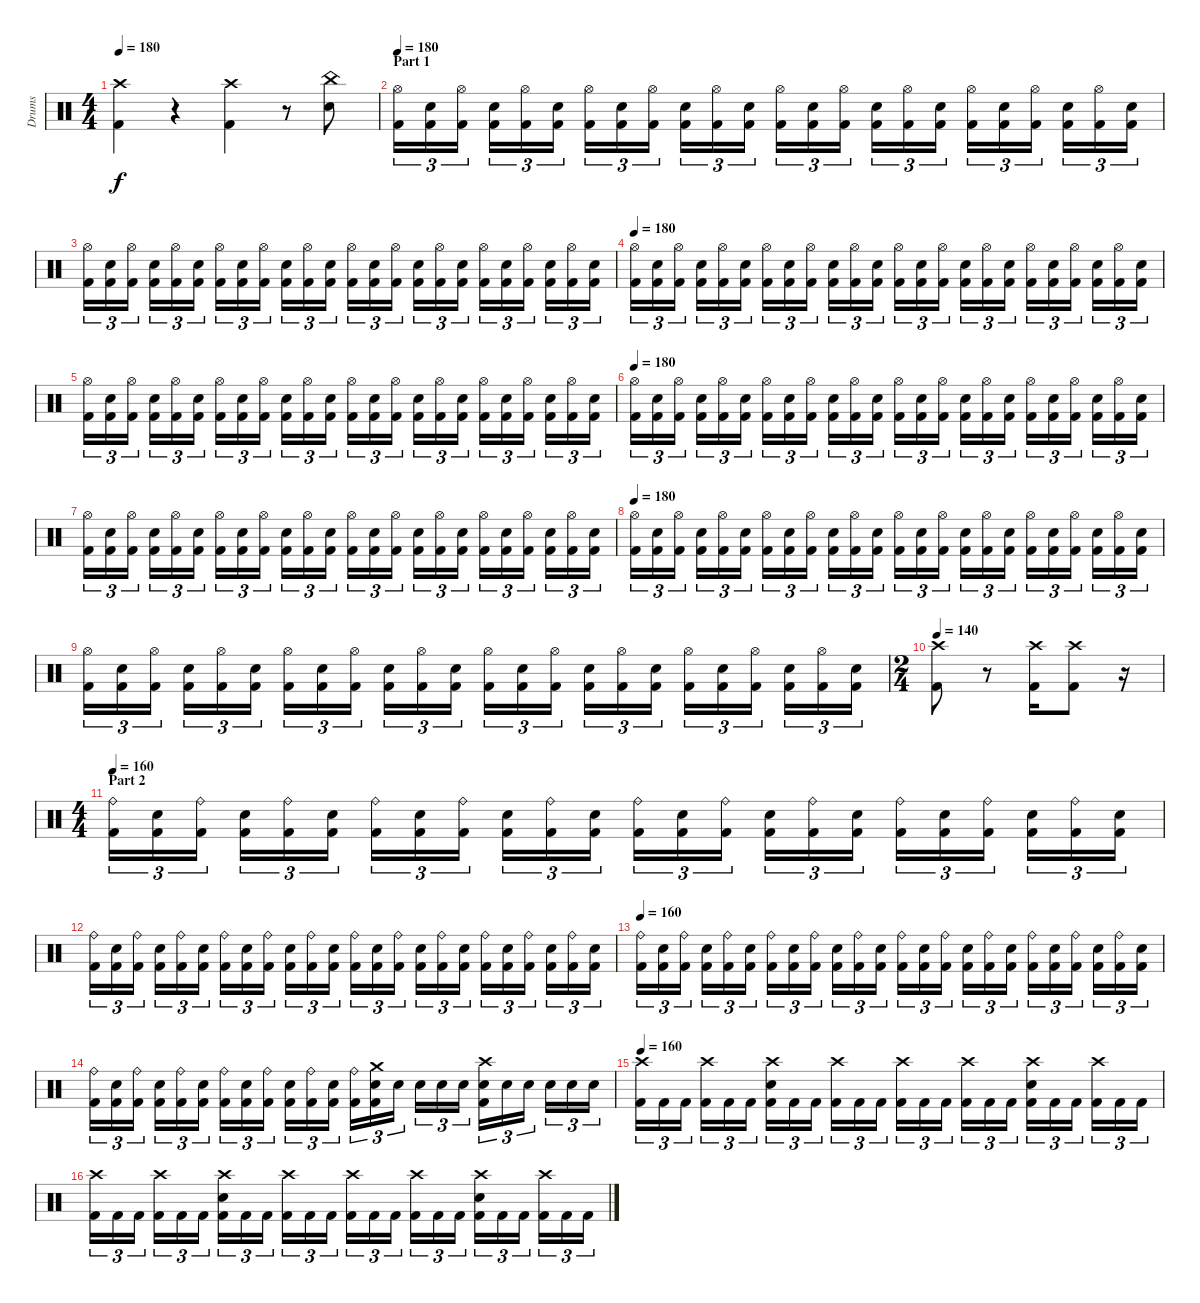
\track ("Drums" "Drums") {instrument percussion}
\staff {score}
\articulation defaults
\ts (4 4)
\tempo 180
\clef neutral
\ks c
("Crash high (hit)" "Kick (hit) 2").4{dy f} r.4 ("Crash high (hit)" "Kick (hit) 2").4 r.8 ("China (hit)" "Electric Snare (hit)").8 |
\section ("" "Part 1")
\tempo 180
("Hi-Hat (open)" "Kick (hit) 2").16{tu (3 2)} ("Electric Snare (hit)" "Kick (hit) 2").16{tu (3 2)} ("Hi-Hat (open)" "Kick (hit) 2").16{tu (3 2)} ("Electric Snare (hit)" "Kick (hit) 2").16{tu (3 2)} ("Hi-Hat (open)" "Kick (hit) 2").16{tu (3 2)} ("Electric Snare (hit)" "Kick (hit) 2").16{tu (3 2)} ("Hi-Hat (open)" "Kick (hit) 2").16{tu (3 2)} ("Electric Snare (hit)" "Kick (hit) 2").16{tu (3 2)} ("Hi-Hat (open)" "Kick (hit) 2").16{tu (3 2)} ("Electric Snare (hit)" "Kick (hit) 2").16{tu (3 2)} ("Hi-Hat (open)" "Kick (hit) 2").16{tu (3 2)} ("Electric Snare (hit)" "Kick (hit) 2").16{tu (3 2)} ("Hi-Hat (open)" "Kick (hit) 2").16{tu (3 2)} ("Electric Snare (hit)" "Kick (hit) 2").16{tu (3 2)} ("Hi-Hat (open)" "Kick (hit) 2").16{tu (3 2)} ("Electric Snare (hit)" "Kick (hit) 2").16{tu (3 2)} ("Hi-Hat (open)" "Kick (hit) 2").16{tu (3 2)} ("Electric Snare (hit)" "Kick (hit) 2").16{tu (3 2)} ("Hi-Hat (open)" "Kick (hit) 2").16{tu (3 2)} ("Electric Snare (hit)" "Kick (hit) 2").16{tu (3 2)} ("Hi-Hat (open)" "Kick (hit) 2").16{tu (3 2)} ("Electric Snare (hit)" "Kick (hit) 2").16{tu (3 2)} ("Hi-Hat (open)" "Kick (hit) 2").16{tu (3 2)} ("Electric Snare (hit)" "Kick (hit) 2").16{tu (3 2)} |
("Hi-Hat (open)" "Kick (hit) 2").16{tu (3 2)} ("Electric Snare (hit)" "Kick (hit) 2").16{tu (3 2)} ("Hi-Hat (open)" "Kick (hit) 2").16{tu (3 2)} ("Electric Snare (hit)" "Kick (hit) 2").16{tu (3 2)} ("Hi-Hat (open)" "Kick (hit) 2").16{tu (3 2)} ("Electric Snare (hit)" "Kick (hit) 2").16{tu (3 2)} ("Hi-Hat (open)" "Kick (hit) 2").16{tu (3 2)} ("Electric Snare (hit)" "Kick (hit) 2").16{tu (3 2)} ("Hi-Hat (open)" "Kick (hit) 2").16{tu (3 2)} ("Electric Snare (hit)" "Kick (hit) 2").16{tu (3 2)} ("Hi-Hat (open)" "Kick (hit) 2").16{tu (3 2)} ("Electric Snare (hit)" "Kick (hit) 2").16{tu (3 2)} ("Hi-Hat (open)" "Kick (hit) 2").16{tu (3 2)} ("Electric Snare (hit)" "Kick (hit) 2").16{tu (3 2)} ("Hi-Hat (open)" "Kick (hit) 2").16{tu (3 2)} ("Electric Snare (hit)" "Kick (hit) 2").16{tu (3 2)} ("Hi-Hat (open)" "Kick (hit) 2").16{tu (3 2)} ("Electric Snare (hit)" "Kick (hit) 2").16{tu (3 2)} ("Hi-Hat (open)" "Kick (hit) 2").16{tu (3 2)} ("Electric Snare (hit)" "Kick (hit) 2").16{tu (3 2)} ("Hi-Hat (open)" "Kick (hit) 2").16{tu (3 2)} ("Electric Snare (hit)" "Kick (hit) 2").16{tu (3 2)} ("Hi-Hat (open)" "Kick (hit) 2").16{tu (3 2)} ("Electric Snare (hit)" "Kick (hit) 2").16{tu (3 2)} |
\tempo 180
("Hi-Hat (open)" "Kick (hit) 2").16{tu (3 2)} ("Electric Snare (hit)" "Kick (hit) 2").16{tu (3 2)} ("Hi-Hat (open)" "Kick (hit) 2").16{tu (3 2)} ("Electric Snare (hit)" "Kick (hit) 2").16{tu (3 2)} ("Hi-Hat (open)" "Kick (hit) 2").16{tu (3 2)} ("Electric Snare (hit)" "Kick (hit) 2").16{tu (3 2)} ("Hi-Hat (open)" "Kick (hit) 2").16{tu (3 2)} ("Electric Snare (hit)" "Kick (hit) 2").16{tu (3 2)} ("Hi-Hat (open)" "Kick (hit) 2").16{tu (3 2)} ("Electric Snare (hit)" "Kick (hit) 2").16{tu (3 2)} ("Hi-Hat (open)" "Kick (hit) 2").16{tu (3 2)} ("Electric Snare (hit)" "Kick (hit) 2").16{tu (3 2)} ("Hi-Hat (open)" "Kick (hit) 2").16{tu (3 2)} ("Electric Snare (hit)" "Kick (hit) 2").16{tu (3 2)} ("Hi-Hat (open)" "Kick (hit) 2").16{tu (3 2)} ("Electric Snare (hit)" "Kick (hit) 2").16{tu (3 2)} ("Hi-Hat (open)" "Kick (hit) 2").16{tu (3 2)} ("Electric Snare (hit)" "Kick (hit) 2").16{tu (3 2)} ("Hi-Hat (open)" "Kick (hit) 2").16{tu (3 2)} ("Electric Snare (hit)" "Kick (hit) 2").16{tu (3 2)} ("Hi-Hat (open)" "Kick (hit) 2").16{tu (3 2)} ("Electric Snare (hit)" "Kick (hit) 2").16{tu (3 2)} ("Hi-Hat (open)" "Kick (hit) 2").16{tu (3 2)} ("Electric Snare (hit)" "Kick (hit) 2").16{tu (3 2)} |
("Hi-Hat (open)" "Kick (hit) 2").16{tu (3 2)} ("Electric Snare (hit)" "Kick (hit) 2").16{tu (3 2)} ("Hi-Hat (open)" "Kick (hit) 2").16{tu (3 2)} ("Electric Snare (hit)" "Kick (hit) 2").16{tu (3 2)} ("Hi-Hat (open)" "Kick (hit) 2").16{tu (3 2)} ("Electric Snare (hit)" "Kick (hit) 2").16{tu (3 2)} ("Hi-Hat (open)" "Kick (hit) 2").16{tu (3 2)} ("Electric Snare (hit)" "Kick (hit) 2").16{tu (3 2)} ("Hi-Hat (open)" "Kick (hit) 2").16{tu (3 2)} ("Electric Snare (hit)" "Kick (hit) 2").16{tu (3 2)} ("Hi-Hat (open)" "Kick (hit) 2").16{tu (3 2)} ("Electric Snare (hit)" "Kick (hit) 2").16{tu (3 2)} ("Hi-Hat (open)" "Kick (hit) 2").16{tu (3 2)} ("Electric Snare (hit)" "Kick (hit) 2").16{tu (3 2)} ("Hi-Hat (open)" "Kick (hit) 2").16{tu (3 2)} ("Electric Snare (hit)" "Kick (hit) 2").16{tu (3 2)} ("Hi-Hat (open)" "Kick (hit) 2").16{tu (3 2)} ("Electric Snare (hit)" "Kick (hit) 2").16{tu (3 2)} ("Hi-Hat (open)" "Kick (hit) 2").16{tu (3 2)} ("Electric Snare (hit)" "Kick (hit) 2").16{tu (3 2)} ("Hi-Hat (open)" "Kick (hit) 2").16{tu (3 2)} ("Electric Snare (hit)" "Kick (hit) 2").16{tu (3 2)} ("Hi-Hat (open)" "Kick (hit) 2").16{tu (3 2)} ("Electric Snare (hit)" "Kick (hit) 2").16{tu (3 2)} |
\tempo 180
("Hi-Hat (open)" "Kick (hit) 2").16{tu (3 2)} ("Electric Snare (hit)" "Kick (hit) 2").16{tu (3 2)} ("Hi-Hat (open)" "Kick (hit) 2").16{tu (3 2)} ("Electric Snare (hit)" "Kick (hit) 2").16{tu (3 2)} ("Hi-Hat (open)" "Kick (hit) 2").16{tu (3 2)} ("Electric Snare (hit)" "Kick (hit) 2").16{tu (3 2)} ("Hi-Hat (open)" "Kick (hit) 2").16{tu (3 2)} ("Electric Snare (hit)" "Kick (hit) 2").16{tu (3 2)} ("Hi-Hat (open)" "Kick (hit) 2").16{tu (3 2)} ("Electric Snare (hit)" "Kick (hit) 2").16{tu (3 2)} ("Hi-Hat (open)" "Kick (hit) 2").16{tu (3 2)} ("Electric Snare (hit)" "Kick (hit) 2").16{tu (3 2)} ("Hi-Hat (open)" "Kick (hit) 2").16{tu (3 2)} ("Electric Snare (hit)" "Kick (hit) 2").16{tu (3 2)} ("Hi-Hat (open)" "Kick (hit) 2").16{tu (3 2)} ("Electric Snare (hit)" "Kick (hit) 2").16{tu (3 2)} ("Hi-Hat (open)" "Kick (hit) 2").16{tu (3 2)} ("Electric Snare (hit)" "Kick (hit) 2").16{tu (3 2)} ("Hi-Hat (open)" "Kick (hit) 2").16{tu (3 2)} ("Electric Snare (hit)" "Kick (hit) 2").16{tu (3 2)} ("Hi-Hat (open)" "Kick (hit) 2").16{tu (3 2)} ("Electric Snare (hit)" "Kick (hit) 2").16{tu (3 2)} ("Hi-Hat (open)" "Kick (hit) 2").16{tu (3 2)} ("Electric Snare (hit)" "Kick (hit) 2").16{tu (3 2)} |
("Hi-Hat (open)" "Kick (hit) 2").16{tu (3 2)} ("Electric Snare (hit)" "Kick (hit) 2").16{tu (3 2)} ("Hi-Hat (open)" "Kick (hit) 2").16{tu (3 2)} ("Electric Snare (hit)" "Kick (hit) 2").16{tu (3 2)} ("Hi-Hat (open)" "Kick (hit) 2").16{tu (3 2)} ("Electric Snare (hit)" "Kick (hit) 2").16{tu (3 2)} ("Hi-Hat (open)" "Kick (hit) 2").16{tu (3 2)} ("Electric Snare (hit)" "Kick (hit) 2").16{tu (3 2)} ("Hi-Hat (open)" "Kick (hit) 2").16{tu (3 2)} ("Electric Snare (hit)" "Kick (hit) 2").16{tu (3 2)} ("Hi-Hat (open)" "Kick (hit) 2").16{tu (3 2)} ("Electric Snare (hit)" "Kick (hit) 2").16{tu (3 2)} ("Hi-Hat (open)" "Kick (hit) 2").16{tu (3 2)} ("Electric Snare (hit)" "Kick (hit) 2").16{tu (3 2)} ("Hi-Hat (open)" "Kick (hit) 2").16{tu (3 2)} ("Electric Snare (hit)" "Kick (hit) 2").16{tu (3 2)} ("Hi-Hat (open)" "Kick (hit) 2").16{tu (3 2)} ("Electric Snare (hit)" "Kick (hit) 2").16{tu (3 2)} ("Hi-Hat (open)" "Kick (hit) 2").16{tu (3 2)} ("Electric Snare (hit)" "Kick (hit) 2").16{tu (3 2)} ("Hi-Hat (open)" "Kick (hit) 2").16{tu (3 2)} ("Electric Snare (hit)" "Kick (hit) 2").16{tu (3 2)} ("Hi-Hat (open)" "Kick (hit) 2").16{tu (3 2)} ("Electric Snare (hit)" "Kick (hit) 2").16{tu (3 2)} |
\tempo 180
("Hi-Hat (open)" "Kick (hit) 2").16{tu (3 2)} ("Electric Snare (hit)" "Kick (hit) 2").16{tu (3 2)} ("Hi-Hat (open)" "Kick (hit) 2").16{tu (3 2)} ("Electric Snare (hit)" "Kick (hit) 2").16{tu (3 2)} ("Hi-Hat (open)" "Kick (hit) 2").16{tu (3 2)} ("Electric Snare (hit)" "Kick (hit) 2").16{tu (3 2)} ("Hi-Hat (open)" "Kick (hit) 2").16{tu (3 2)} ("Electric Snare (hit)" "Kick (hit) 2").16{tu (3 2)} ("Hi-Hat (open)" "Kick (hit) 2").16{tu (3 2)} ("Electric Snare (hit)" "Kick (hit) 2").16{tu (3 2)} ("Hi-Hat (open)" "Kick (hit) 2").16{tu (3 2)} ("Electric Snare (hit)" "Kick (hit) 2").16{tu (3 2)} ("Hi-Hat (open)" "Kick (hit) 2").16{tu (3 2)} ("Electric Snare (hit)" "Kick (hit) 2").16{tu (3 2)} ("Hi-Hat (open)" "Kick (hit) 2").16{tu (3 2)} ("Electric Snare (hit)" "Kick (hit) 2").16{tu (3 2)} ("Hi-Hat (open)" "Kick (hit) 2").16{tu (3 2)} ("Electric Snare (hit)" "Kick (hit) 2").16{tu (3 2)} ("Hi-Hat (open)" "Kick (hit) 2").16{tu (3 2)} ("Electric Snare (hit)" "Kick (hit) 2").16{tu (3 2)} ("Hi-Hat (open)" "Kick (hit) 2").16{tu (3 2)} ("Electric Snare (hit)" "Kick (hit) 2").16{tu (3 2)} ("Hi-Hat (open)" "Kick (hit) 2").16{tu (3 2)} ("Electric Snare (hit)" "Kick (hit) 2").16{tu (3 2)} |
("Hi-Hat (open)" "Kick (hit) 2").16{tu (3 2)} ("Electric Snare (hit)" "Kick (hit) 2").16{tu (3 2)} ("Hi-Hat (open)" "Kick (hit) 2").16{tu (3 2)} ("Electric Snare (hit)" "Kick (hit) 2").16{tu (3 2)} ("Hi-Hat (open)" "Kick (hit) 2").16{tu (3 2)} ("Electric Snare (hit)" "Kick (hit) 2").16{tu (3 2)} ("Hi-Hat (open)" "Kick (hit) 2").16{tu (3 2)} ("Electric Snare (hit)" "Kick (hit) 2").16{tu (3 2)} ("Hi-Hat (open)" "Kick (hit) 2").16{tu (3 2)} ("Electric Snare (hit)" "Kick (hit) 2").16{tu (3 2)} ("Hi-Hat (open)" "Kick (hit) 2").16{tu (3 2)} ("Electric Snare (hit)" "Kick (hit) 2").16{tu (3 2)} ("Hi-Hat (open)" "Kick (hit) 2").16{tu (3 2)} ("Electric Snare (hit)" "Kick (hit) 2").16{tu (3 2)} ("Hi-Hat (open)" "Kick (hit) 2").16{tu (3 2)} ("Electric Snare (hit)" "Kick (hit) 2").16{tu (3 2)} ("Hi-Hat (open)" "Kick (hit) 2").16{tu (3 2)} ("Electric Snare (hit)" "Kick (hit) 2").16{tu (3 2)} ("Hi-Hat (open)" "Kick (hit) 2").16{tu (3 2)} ("Electric Snare (hit)" "Kick (hit) 2").16{tu (3 2)} ("Hi-Hat (open)" "Kick (hit) 2").16{tu (3 2)} ("Electric Snare (hit)" "Kick (hit) 2").16{tu (3 2)} ("Hi-Hat (open)" "Kick (hit) 2").16{tu (3 2)} ("Electric Snare (hit)" "Kick (hit) 2").16{tu (3 2)} |
\ts (2 4)
\tempo 140
("Crash high (hit)" "Kick (hit) 2").8 r.8 ("Crash high (hit)" "Kick (hit) 2").16 ("Crash high (hit)" "Kick (hit) 2").8 r.16 |
\ts (4 4)
\section ("" "Part 2")
\tempo 160
("Ride (bell)" "Kick (hit) 2").16{tu (3 2)} ("Electric Snare (hit)" "Kick (hit) 2").16{tu (3 2)} ("Ride (bell)" "Kick (hit) 2").16{tu (3 2)} ("Electric Snare (hit)" "Kick (hit) 2").16{tu (3 2)} ("Ride (bell)" "Kick (hit) 2").16{tu (3 2)} ("Electric Snare (hit)" "Kick (hit) 2").16{tu (3 2)} ("Ride (bell)" "Kick (hit) 2").16{tu (3 2)} ("Electric Snare (hit)" "Kick (hit) 2").16{tu (3 2)} ("Ride (bell)" "Kick (hit) 2").16{tu (3 2)} ("Electric Snare (hit)" "Kick (hit) 2").16{tu (3 2)} ("Ride (bell)" "Kick (hit) 2").16{tu (3 2)} ("Electric Snare (hit)" "Kick (hit) 2").16{tu (3 2)} ("Ride (bell)" "Kick (hit) 2").16{tu (3 2)} ("Electric Snare (hit)" "Kick (hit) 2").16{tu (3 2)} ("Ride (bell)" "Kick (hit) 2").16{tu (3 2)} ("Electric Snare (hit)" "Kick (hit) 2").16{tu (3 2)} ("Ride (bell)" "Kick (hit) 2").16{tu (3 2)} ("Electric Snare (hit)" "Kick (hit) 2").16{tu (3 2)} ("Ride (bell)" "Kick (hit) 2").16{tu (3 2)} ("Electric Snare (hit)" "Kick (hit) 2").16{tu (3 2)} ("Ride (bell)" "Kick (hit) 2").16{tu (3 2)} ("Electric Snare (hit)" "Kick (hit) 2").16{tu (3 2)} ("Ride (bell)" "Kick (hit) 2").16{tu (3 2)} ("Electric Snare (hit)" "Kick (hit) 2").16{tu (3 2)} |
("Ride (bell)" "Kick (hit) 2").16{tu (3 2)} ("Electric Snare (hit)" "Kick (hit) 2").16{tu (3 2)} ("Ride (bell)" "Kick (hit) 2").16{tu (3 2)} ("Electric Snare (hit)" "Kick (hit) 2").16{tu (3 2)} ("Ride (bell)" "Kick (hit) 2").16{tu (3 2)} ("Electric Snare (hit)" "Kick (hit) 2").16{tu (3 2)} ("Ride (bell)" "Kick (hit) 2").16{tu (3 2)} ("Electric Snare (hit)" "Kick (hit) 2").16{tu (3 2)} ("Ride (bell)" "Kick (hit) 2").16{tu (3 2)} ("Electric Snare (hit)" "Kick (hit) 2").16{tu (3 2)} ("Ride (bell)" "Kick (hit) 2").16{tu (3 2)} ("Electric Snare (hit)" "Kick (hit) 2").16{tu (3 2)} ("Ride (bell)" "Kick (hit) 2").16{tu (3 2)} ("Electric Snare (hit)" "Kick (hit) 2").16{tu (3 2)} ("Ride (bell)" "Kick (hit) 2").16{tu (3 2)} ("Electric Snare (hit)" "Kick (hit) 2").16{tu (3 2)} ("Ride (bell)" "Kick (hit) 2").16{tu (3 2)} ("Electric Snare (hit)" "Kick (hit) 2").16{tu (3 2)} ("Ride (bell)" "Kick (hit) 2").16{tu (3 2)} ("Electric Snare (hit)" "Kick (hit) 2").16{tu (3 2)} ("Ride (bell)" "Kick (hit) 2").16{tu (3 2)} ("Electric Snare (hit)" "Kick (hit) 2").16{tu (3 2)} ("Ride (bell)" "Kick (hit) 2").16{tu (3 2)} ("Electric Snare (hit)" "Kick (hit) 2").16{tu (3 2)} |
\tempo 160
("Ride (bell)" "Kick (hit) 2").16{tu (3 2)} ("Electric Snare (hit)" "Kick (hit) 2").16{tu (3 2)} ("Ride (bell)" "Kick (hit) 2").16{tu (3 2)} ("Electric Snare (hit)" "Kick (hit) 2").16{tu (3 2)} ("Ride (bell)" "Kick (hit) 2").16{tu (3 2)} ("Electric Snare (hit)" "Kick (hit) 2").16{tu (3 2)} ("Ride (bell)" "Kick (hit) 2").16{tu (3 2)} ("Electric Snare (hit)" "Kick (hit) 2").16{tu (3 2)} ("Ride (bell)" "Kick (hit) 2").16{tu (3 2)} ("Electric Snare (hit)" "Kick (hit) 2").16{tu (3 2)} ("Ride (bell)" "Kick (hit) 2").16{tu (3 2)} ("Electric Snare (hit)" "Kick (hit) 2").16{tu (3 2)} ("Ride (bell)" "Kick (hit) 2").16{tu (3 2)} ("Electric Snare (hit)" "Kick (hit) 2").16{tu (3 2)} ("Ride (bell)" "Kick (hit) 2").16{tu (3 2)} ("Electric Snare (hit)" "Kick (hit) 2").16{tu (3 2)} ("Ride (bell)" "Kick (hit) 2").16{tu (3 2)} ("Electric Snare (hit)" "Kick (hit) 2").16{tu (3 2)} ("Ride (bell)" "Kick (hit) 2").16{tu (3 2)} ("Electric Snare (hit)" "Kick (hit) 2").16{tu (3 2)} ("Ride (bell)" "Kick (hit) 2").16{tu (3 2)} ("Electric Snare (hit)" "Kick (hit) 2").16{tu (3 2)} ("Ride (bell)" "Kick (hit) 2").16{tu (3 2)} ("Electric Snare (hit)" "Kick (hit) 2").16{tu (3 2)} |
("Ride (bell)" "Kick (hit) 2").16{tu (3 2)} ("Electric Snare (hit)" "Kick (hit) 2").16{tu (3 2)} ("Ride (bell)" "Kick (hit) 2").16{tu (3 2)} ("Electric Snare (hit)" "Kick (hit) 2").16{tu (3 2)} ("Ride (bell)" "Kick (hit) 2").16{tu (3 2)} ("Electric Snare (hit)" "Kick (hit) 2").16{tu (3 2)} ("Ride (bell)" "Kick (hit) 2").16{tu (3 2)} ("Electric Snare (hit)" "Kick (hit) 2").16{tu (3 2)} ("Ride (bell)" "Kick (hit) 2").16{tu (3 2)} ("Electric Snare (hit)" "Kick (hit) 2").16{tu (3 2)} ("Ride (bell)" "Kick (hit) 2").16{tu (3 2)} ("Electric Snare (hit)" "Kick (hit) 2").16{tu (3 2)} ("Ride (bell)" "Kick (hit) 2").16{tu (3 2)} ("Crash medium (hit)" "Electric Snare (hit)" "Kick (hit) 2").16{tu (3 2)} "Electric Snare (hit)".16{tu (3 2)} "Electric Snare (hit)".16{tu (3 2)} "Electric Snare (hit)".16{tu (3 2)} "Electric Snare (hit)".16{tu (3 2)} ("Crash high (hit)" "Electric Snare (hit)" "Kick (hit) 2").16{tu (3 2)} "Electric Snare (hit)".16{tu (3 2)} "Electric Snare (hit)".16{tu (3 2)} "Electric Snare (hit)".16{tu (3 2)} "Electric Snare (hit)".16{tu (3 2)} "Electric Snare (hit)".16{tu (3 2)} |
\tempo 160
("Crash high (hit)" "Kick (hit) 2").16{tu (3 2)} "Kick (hit) 2".16{tu (3 2)} "Kick (hit) 2".16{tu (3 2)} ("Crash high (hit)" "Kick (hit) 2").16{tu (3 2)} "Kick (hit) 2".16{tu (3 2)} "Kick (hit) 2".16{tu (3 2)} ("Crash high (hit)" "Electric Snare (hit)" "Kick (hit) 2").16{tu (3 2)} "Kick (hit) 2".16{tu (3 2)} "Kick (hit) 2".16{tu (3 2)} ("Crash high (hit)" "Kick (hit) 2").16{tu (3 2)} "Kick (hit) 2".16{tu (3 2)} "Kick (hit) 2".16{tu (3 2)} ("Crash high (hit)" "Kick (hit) 2").16{tu (3 2)} "Kick (hit) 2".16{tu (3 2)} "Kick (hit) 2".16{tu (3 2)} ("Crash high (hit)" "Kick (hit) 2").16{tu (3 2)} "Kick (hit) 2".16{tu (3 2)} "Kick (hit) 2".16{tu (3 2)} ("Crash high (hit)" "Electric Snare (hit)" "Kick (hit) 2").16{tu (3 2)} "Kick (hit) 2".16{tu (3 2)} "Kick (hit) 2".16{tu (3 2)} ("Crash high (hit)" "Kick (hit) 2").16{tu (3 2)} "Kick (hit) 2".16{tu (3 2)} "Kick (hit) 2".16{tu (3 2)} |
("Crash high (hit)" "Kick (hit) 2").16{tu (3 2)} "Kick (hit) 2".16{tu (3 2)} "Kick (hit) 2".16{tu (3 2)} ("Crash high (hit)" "Kick (hit) 2").16{tu (3 2)} "Kick (hit) 2".16{tu (3 2)} "Kick (hit) 2".16{tu (3 2)} ("Crash high (hit)" "Electric Snare (hit)" "Kick (hit) 2").16{tu (3 2)} "Kick (hit) 2".16{tu (3 2)} "Kick (hit) 2".16{tu (3 2)} ("Crash high (hit)" "Kick (hit) 2").16{tu (3 2)} "Kick (hit) 2".16{tu (3 2)} "Kick (hit) 2".16{tu (3 2)} ("Crash high (hit)" "Kick (hit) 2").16{tu (3 2)} "Kick (hit) 2".16{tu (3 2)} "Kick (hit) 2".16{tu (3 2)} ("Crash high (hit)" "Kick (hit) 2").16{tu (3 2)} "Kick (hit) 2".16{tu (3 2)} "Kick (hit) 2".16{tu (3 2)} ("Crash high (hit)" "Electric Snare (hit)" "Kick (hit) 2").16{tu (3 2)} "Kick (hit) 2".16{tu (3 2)} "Kick (hit) 2".16{tu (3 2)} ("Crash high (hit)" "Kick (hit) 2").16{tu (3 2)} "Kick (hit) 2".16{tu (3 2)} "Kick (hit) 2".16{tu (3 2)}
